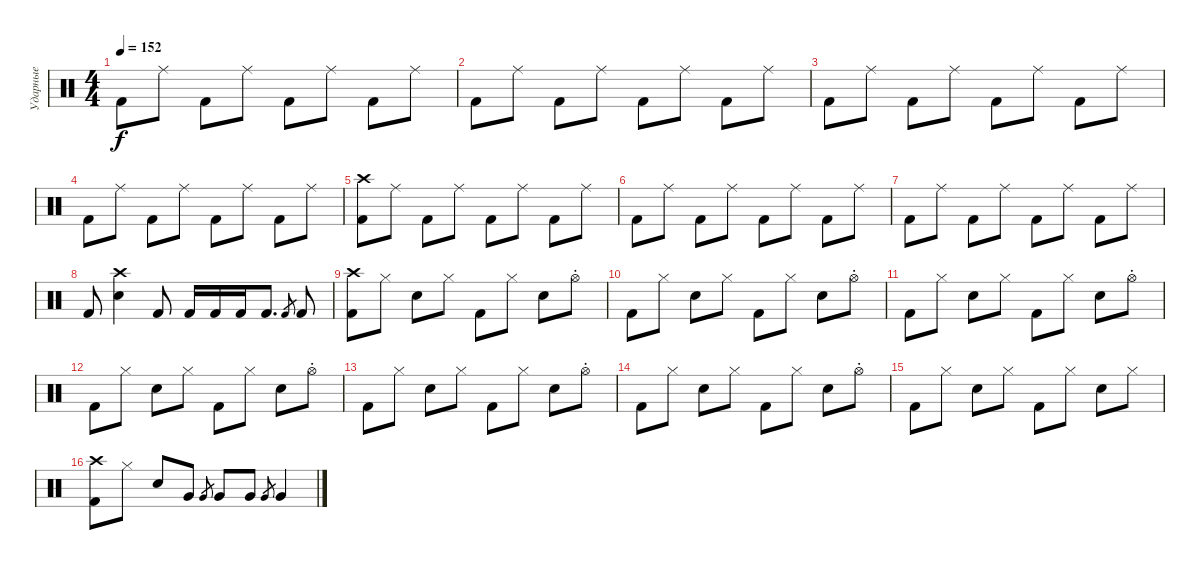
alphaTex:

\track ("Ударные" "Ударные") {instrument percussion}
\staff {score}
\articulation defaults
\ts (4 4)
\tempo 152
\clef neutral
\ks c "Kick (hit) 2".8{dy f} "Ride (middle)".8 "Kick (hit) 2".8 "Ride (middle)".8 "Kick (hit) 2".8 "Ride (middle)".8 "Kick (hit) 2".8 "Ride (middle)".8
|
"Kick (hit) 2".8 "Ride (middle)".8 "Kick (hit) 2".8 "Ride (middle)".8 "Kick (hit) 2".8 "Ride (middle)".8 "Kick (hit) 2".8 "Ride (middle)".8 |
"Kick (hit) 2".8 "Ride (middle)".8 "Kick (hit) 2".8 "Ride (middle)".8 "Kick (hit) 2".8 "Ride (middle)".8 "Kick (hit) 2".8 "Ride (middle)".8 |
"Kick (hit) 2".8 "Ride (middle)".8 "Kick (hit) 2".8 "Ride (middle)".8 "Kick (hit) 2".8 "Ride (middle)".8 "Kick (hit) 2".8 "Ride (middle)".8 |
("Crash high (hit)" "Kick (hit) 2").8 "Ride (middle)".8 "Kick (hit) 2".8 "Ride (middle)".8 "Kick (hit) 2".8 "Ride (middle)".8 "Kick (hit) 2".8 "Ride (middle)".8 |
"Kick (hit) 2".8 "Ride (middle)".8 "Kick (hit) 2".8 "Ride (middle)".8 "Kick (hit) 2".8 "Ride (middle)".8 "Kick (hit) 2".8 "Ride (middle)".8 |
"Kick (hit) 2".8 "Ride (middle)".8 "Kick (hit) 2".8 "Ride (middle)".8 "Kick (hit) 2".8 "Ride (middle)".8 "Kick (hit) 2".8 "Ride (middle)".8 |
"Kick (hit) 2".8 ("Crash high (hit)" "Electric Snare (hit)").4 "Kick (hit) 2".8 "Kick (hit) 2".16 "Kick (hit) 2".16 "Kick (hit) 2".16 "Kick (hit) 2".8{d} "Kick (hit) 2".8{gr} "Kick (hit) 2".8 |
("Crash high (hit)" "Kick (hit) 2").8 "Hi-Hat (closed)".8 "Electric Snare (hit)".8 "Hi-Hat (closed)".8 "Kick (hit) 2".8 "Hi-Hat (closed)".8 "Electric Snare (hit)".8 "Hi-Hat (open)"{st}.8 |
"Kick (hit) 2".8 "Hi-Hat (closed)".8 "Electric Snare (hit)".8 "Hi-Hat (closed)".8 "Kick (hit) 2".8 "Hi-Hat (closed)".8 "Electric Snare (hit)".8 "Hi-Hat (open)"{st}.8 |
"Kick (hit) 2".8 "Hi-Hat (closed)".8 "Electric Snare (hit)".8 "Hi-Hat (closed)".8 "Kick (hit) 2".8 "Hi-Hat (closed)".8 "Electric Snare (hit)".8 "Hi-Hat (open)"{st}.8 |
"Kick (hit) 2".8 "Hi-Hat (closed)".8 "Electric Snare (hit)".8 "Hi-Hat (closed)".8 "Kick (hit) 2".8 "Hi-Hat (closed)".8 "Electric Snare (hit)".8 "Hi-Hat (open)"{st}.8 |
"Kick (hit) 2".8 "Hi-Hat (closed)".8 "Electric Snare (hit)".8 "Hi-Hat (closed)".8 "Kick (hit) 2".8 "Hi-Hat (closed)".8 "Electric Snare (hit)".8 "Hi-Hat (open)"{st}.8 |
"Kick (hit) 2".8 "Hi-Hat (closed)".8 "Electric Snare (hit)".8 "Hi-Hat (closed)".8 "Kick (hit) 2".8 "Hi-Hat (closed)".8 "Electric Snare (hit)".8 "Hi-Hat (open)"{st}.8 |
"Kick (hit) 2".8 "Hi-Hat (closed)".8 "Electric Snare (hit)".8 "Hi-Hat (closed)".8 "Kick (hit) 2".8 "Hi-Hat (closed)".8 "Electric Snare (hit)".8 "Hi-Hat (closed)".8 |
("Crash high (hit)" "Kick (hit) 2").8 "Hi-Hat (closed)".8 "Electric Snare (hit)".8 "Very Low Tom (hit)".8 "Very Low Tom (hit)".8{gr} "Very Low Tom (hit)".8 "Very Low Tom (hit)".8 "Very Low Tom (hit)".8{gr} "Very Low Tom (hit)".4
